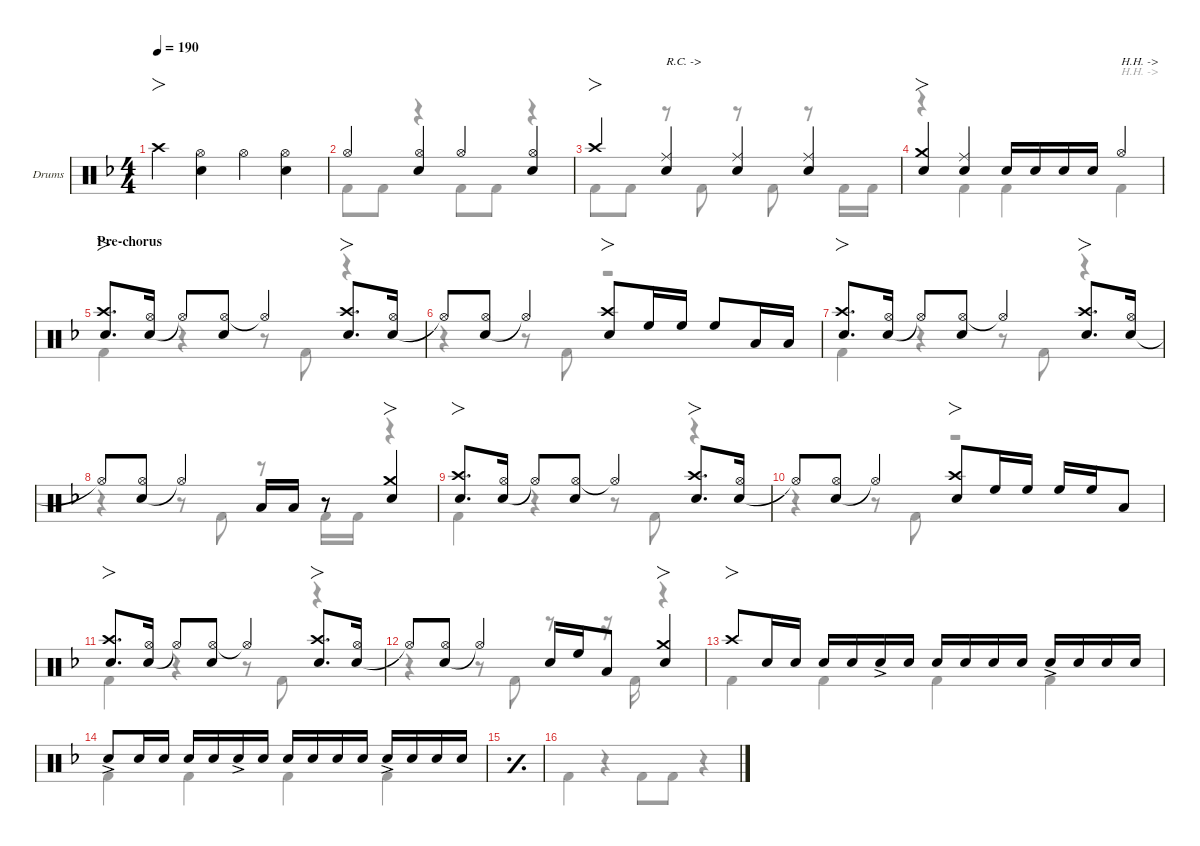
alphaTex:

\defaultSystemsLayout 4
\hideDynamics
\bracketExtendMode nobrackets
\firstSystemTrackNameOrientation horizontal
\track ("Drums" "Drums") {defaultSystemsLayout 4 instrument percussion}
\staff {score}
\articulation defaults
\voice
\ts (4 4)
\tempo 190
\clef neutral
\scale
0.266618
\ks dminor "Crash high (hit)"{acc forcenatural}.4{fo dy f}
("Hi-Hat (open)"{acc forcenatural} "Snare (hit) 2"{acc forcenatural}).4 "Hi-Hat (open)"{acc forcenatural}.4 ("Hi-Hat (open)"{acc forcenatural} "Snare (hit) 2"{acc forcenatural}).4 |
\scale
0.244461 "Hi-Hat (open)"{acc forcenatural}.4 ("Hi-Hat (open)"{acc forcenatural} "Snare (hit) 2"{acc forcenatural}).4 "Hi-Hat (open)"{acc forcenatural}.4 ("Hi-Hat (open)"{acc forcenatural} "Snare (hit) 2"{acc forcenatural}).4 |
\scale
0.244789 "Crash high (hit)"{acc forcenatural}.4{fo} ("Snare (hit) 2"{acc forcenatural} "Ride (middle)"{acc forcenatural}).4{txt "R.C. ->"} ("Snare (hit) 2"{acc forcenatural} "Ride (middle)"{acc forcenatural}).4 ("Snare (hit) 2"{acc forcenatural} "Ride (middle)"{acc forcenatural}).4 |
\scale
0.244132 ("Snare (hit) 2"{acc forcenatural} "Crash medium (hit)"{acc forcenatural}).4{fo} ("Ride (middle)"{acc forcenatural} "Snare (hit) 2"{acc forcenatural}).4 "Snare (hit) 2"{acc forcenatural}.16 "Snare (hit) 2"{acc forcenatural}.16{dy mp} "Snare (hit) 2"{acc forcenatural}.16{dy mf} "Snare (hit) 2"{acc forcenatural}.16{dy mp beam split} "Hi-Hat (open)"{acc forcenatural}.4{txt "H.H. ->" dy f} |
\section ("" "Pre-chorus")
\scale
0.267605 ("Snare (hit) 2"{acc forcenatural} "Crash high (hit)"{acc forcenatural}).8{fo d} ("Snare (hit) 2"{acc forcenatural} "Hi-Hat (open)"{acc forcenatural}).16{beam split} "Hi-Hat (open)"{t acc forcenatural}.8 ("Hi-Hat (open)"{acc forcenatural} "Snare (hit) 2"{acc forcenatural}).8 "Hi-Hat (open)"{t acc forcenatural}.4 ("Snare (hit) 2"{acc forcenatural} "Crash high (hit)"{acc forcenatural}).8{fo d} ("Snare (hit) 2"{acc forcenatural} "Hi-Hat (open)"{acc forcenatural}).16 |
\scale
0.243474 "Hi-Hat (open)"{t acc forcenatural}.8 ("Snare (hit) 2"{acc forcenatural} "Hi-Hat (open)"{acc forcenatural}).8 "Hi-Hat (open)"{t acc forcenatural}.4 ("Snare (hit) 2"{acc forcenatural} "Crash high (hit)"{acc forcenatural}).8{fo} "High Floor Tom (hit)"{acc forcenatural}.16 "High Floor Tom (hit)"{acc forcenatural}.16{beam split} "High Floor Tom (hit)"{acc forcenatural}.8 "Low Tom (hit)"{acc forcenatural}.16 "Low Tom (hit)"{acc forcenatural}.16 |
\scale
0.244789 ("Snare (hit) 2"{acc forcenatural} "Crash high (hit)"{acc forcenatural}).8{fo d} ("Snare (hit) 2"{acc forcenatural} "Hi-Hat (open)"{acc forcenatural}).16{beam split} "Hi-Hat (open)"{t acc forcenatural}.8 ("Hi-Hat (open)"{acc forcenatural} "Snare (hit) 2"{acc forcenatural}).8 "Hi-Hat (open)"{t acc forcenatural}.4 ("Snare (hit) 2"{acc forcenatural} "Crash high (hit)"{acc forcenatural}).8{fo d} ("Snare (hit) 2"{acc forcenatural} "Hi-Hat (open)"{acc forcenatural}).16 |
\scale
0.244132 "Hi-Hat (open)"{t acc forcenatural}.8 ("Snare (hit) 2"{acc forcenatural} "Hi-Hat (open)"{acc forcenatural}).8 "Hi-Hat (open)"{t acc forcenatural}.4 "Low Tom (hit)"{acc forcenatural}.16 "Low Tom (hit)"{acc forcenatural}.16 r.8 ("Snare (hit) 2"{acc forcenatural} "Crash medium (hit)"{acc forcenatural}).4{fo} |
\scale
0.267605 ("Snare (hit) 2"{acc forcenatural} "Crash high (hit)"{acc forcenatural}).8{fo d} ("Snare (hit) 2"{acc forcenatural} "Hi-Hat (open)"{acc forcenatural}).16{beam split} "Hi-Hat (open)"{t acc forcenatural}.8 ("Hi-Hat (open)"{acc forcenatural} "Snare (hit) 2"{acc forcenatural}).8 "Hi-Hat (open)"{t acc forcenatural}.4 ("Snare (hit) 2"{acc forcenatural} "Crash high (hit)"{acc forcenatural}).8{fo d} ("Snare (hit) 2"{acc forcenatural} "Hi-Hat (open)"{acc forcenatural}).16 |
\scale
0.243474 "Hi-Hat (open)"{t acc forcenatural}.8 ("Snare (hit) 2"{acc forcenatural} "Hi-Hat (open)"{acc forcenatural}).8 "Hi-Hat (open)"{t acc forcenatural}.4 ("Snare (hit) 2"{acc forcenatural} "Crash high (hit)"{acc forcenatural}).8{fo} "High Floor Tom (hit)"{acc forcenatural}.16 "High Floor Tom (hit)"{acc forcenatural}.16{beam split} "High Floor Tom (hit)"{acc forcenatural}.16 "High Floor Tom (hit)"{acc forcenatural}.16 "Low Tom (hit)"{acc forcenatural}.8 |
\scale
0.244789 ("Snare (hit) 2"{acc forcenatural} "Crash high (hit)"{acc forcenatural}).8{fo d} ("Snare (hit) 2"{acc forcenatural} "Hi-Hat (open)"{acc forcenatural}).16{beam split} "Hi-Hat (open)"{t acc forcenatural}.8 ("Hi-Hat (open)"{acc forcenatural} "Snare (hit) 2"{acc forcenatural}).8 "Hi-Hat (open)"{t acc forcenatural}.4 ("Snare (hit) 2"{acc forcenatural} "Crash high (hit)"{acc forcenatural}).8{fo d} ("Snare (hit) 2"{acc forcenatural} "Hi-Hat (open)"{acc forcenatural}).16 |
\scale
0.244132 "Hi-Hat (open)"{t acc forcenatural}.8 ("Snare (hit) 2"{acc forcenatural} "Hi-Hat (open)"{acc forcenatural}).8 "Hi-Hat (open)"{t acc forcenatural}.4 "Snare (hit) 2"{acc forcenatural}.16 "High Floor Tom (hit)"{acc forcenatural}.16 "Low Tom (hit)"{acc forcenatural}.8 ("Snare (hit) 2"{acc forcenatural} "Crash medium (hit)"{acc forcenatural}).4{fo} |
\scale
0.267605 "Crash high (hit)"{acc forcenatural}.8{fo} "Snare (hit) 2"{acc forcenatural}.16{dy mf} "Snare (hit) 2"{acc forcenatural}.16{dy mp beam split} "Snare (hit) 2"{acc forcenatural}.16{dy f} "Snare (hit) 2"{acc forcenatural}.16{dy mp} "Snare (hit) 2"{ac acc forcenatural}.16{dy f} "Snare (hit) 2"{acc forcenatural}.16{dy mp} "Snare (hit) 2"{acc forcenatural}.16{dy f} "Snare (hit) 2"{acc forcenatural}.16{dy mp} "Snare (hit) 2"{acc forcenatural}.16{dy f} "Snare (hit) 2"{acc forcenatural}.16{dy mp beam split} "Snare (hit) 2"{ac acc forcenatural}.16{dy f} "Snare (hit) 2"{acc forcenatural}.16{dy mp} "Snare (hit) 2"{acc forcenatural}.16{dy f} "Snare (hit) 2"{acc forcenatural}.16{dy mp} |
\scale
0.244132 "Snare (hit) 2"{ac acc forcenatural}.8{dy f} "Snare (hit) 2"{acc forcenatural}.16{dy mf} "Snare (hit) 2"{acc forcenatural}.16{dy mp beam split} "Snare (hit) 2"{acc forcenatural}.16{dy f} "Snare (hit) 2"{acc forcenatural}.16{dy mp} "Snare (hit) 2"{ac acc forcenatural}.16{dy f} "Snare (hit) 2"{acc forcenatural}.16{dy mp} "Snare (hit) 2"{acc forcenatural}.16{dy f} "Snare (hit) 2"{acc forcenatural}.16{dy mp} "Snare (hit) 2"{acc forcenatural}.16{dy f} "Snare (hit) 2"{acc forcenatural}.16{dy mp beam split} "Snare (hit) 2"{ac acc forcenatural}.16{dy f} "Snare (hit) 2"{acc forcenatural}.16{dy mp} "Snare (hit) 2"{acc forcenatural}.16{dy f} "Snare (hit) 2"{acc forcenatural}.16{dy mp} |
\simile simple
\scale
0.244132 |
\scale
0.244132
\voice
\clef neutral
\ottava regular
\simile none
\scale
0.266618
\ks dminor "Kick (hit) 2"{acc forcenatural}.4{dy f}
r.4 "Kick (hit) 2"{acc forcenatural}.8 "Kick (hit) 2"{acc forcenatural}.8 r.4 |
\scale
0.244461 "Kick (hit) 2"{acc forcenatural}.8 "Kick (hit) 2"{acc forcenatural}.8 r.4 "Kick (hit) 2"{acc forcenatural}.8 "Kick (hit) 2"{acc forcenatural}.8 r.4 |
\scale
0.244789 "Kick (hit) 2"{acc forcenatural}.8 "Kick (hit) 2"{acc forcenatural}.8 r.8{txt "R.C. ->"} "Kick (hit) 2"{acc forcenatural}.8 r.8 "Kick (hit) 2"{acc forcenatural}.8{beam split} r.8{beam split} "Kick (hit) 2"{acc forcenatural}.16 "Kick (hit) 2"{acc forcenatural}.16 |
\scale
0.244132 r.4 "Kick (hit) 2"{acc forcenatural}.4 "Kick (hit) 2"{acc forcenatural}.4 "Kick (hit) 2"{acc forcenatural}.4{txt "H.H. ->"} |
\scale
0.267605 "Kick (hit) 2"{acc forcenatural}.4 r.4 r.8 "Kick (hit) 2"{acc forcenatural}.8 r.4 |
\scale
0.243474 r.4 r.8 "Kick (hit) 2"{acc forcenatural}.8 r.2 |
\scale
0.244789 "Kick (hit) 2"{acc forcenatural}.4 r.4 r.8 "Kick (hit) 2"{acc forcenatural}.8 r.4 |
\scale
0.244132 r.4 r.8 "Kick (hit) 2"{acc forcenatural}.8 r.8 "Kick (hit) 2"{acc forcenatural}.16 "Kick (hit) 2"{acc forcenatural}.16 r.4 |
\scale
0.267605 "Kick (hit) 2"{acc forcenatural}.4 r.4 r.8 "Kick (hit) 2"{acc forcenatural}.8 r.4 |
\scale
0.243474 r.4 r.8 "Kick (hit) 2"{acc forcenatural}.8 r.2 |
\scale
0.244789 "Kick (hit) 2"{acc forcenatural}.4 r.4 r.8 "Kick (hit) 2"{acc forcenatural}.8 r.4 |
\scale
0.244132 r.4 r.8 "Kick (hit) 2"{acc forcenatural}.8 r.8 r.16 "Kick (hit) 2"{acc forcenatural}.16 r.4 |
\scale
0.267605 "Kick (hit) 2"{acc forcenatural}.4 "Kick (hit) 2"{acc forcenatural}.4 "Kick (hit) 2"{acc forcenatural}.4 "Kick (hit) 2"{acc forcenatural}.4 |
\scale
0.244132 "Kick (hit) 2"{acc forcenatural}.4 "Kick (hit) 2"{acc forcenatural}.4 "Kick (hit) 2"{acc forcenatural}.4 "Kick (hit) 2"{acc forcenatural}.4 |
\simile simple
\scale
0.244132 |
\scale
0.244132
